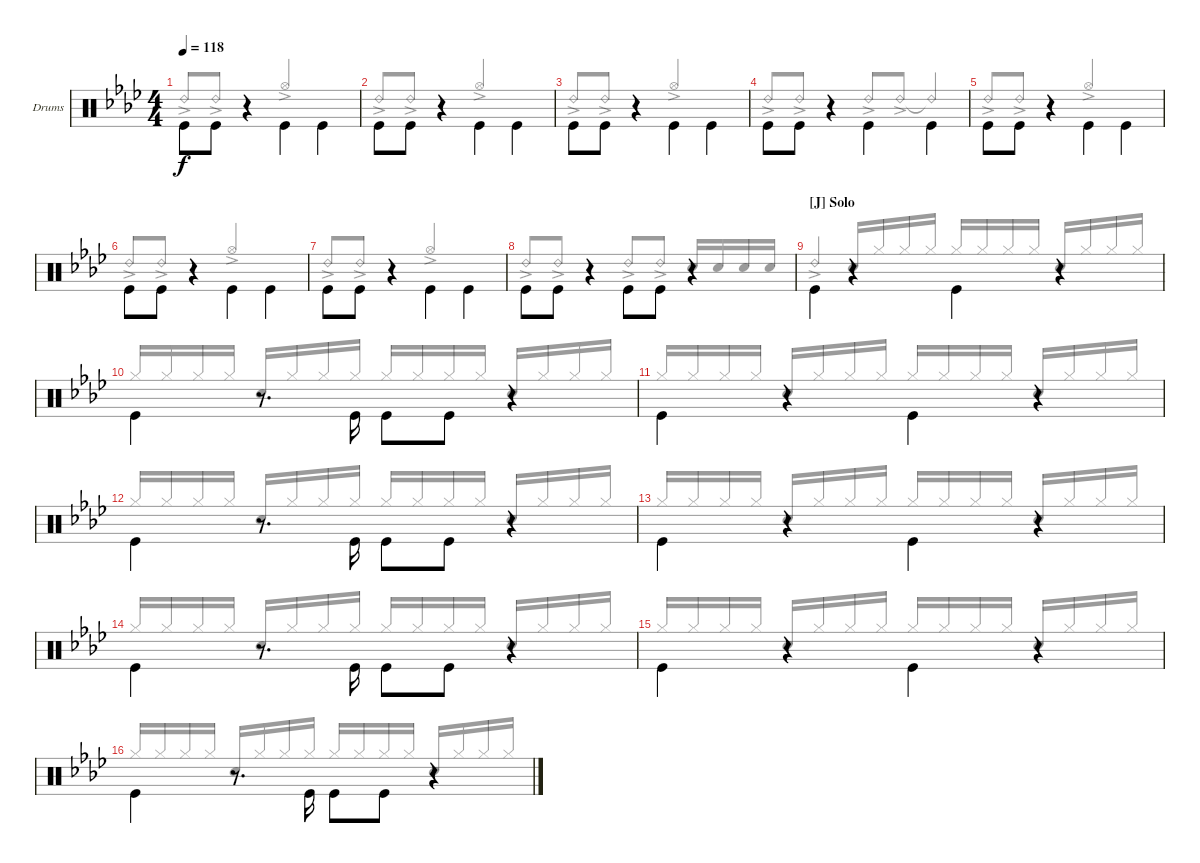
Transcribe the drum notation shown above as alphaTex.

\bracketExtendMode groupsimilarinstruments
\firstSystemTrackNameOrientation horizontal
\otherSystemsTrackNameOrientation horizontal
\track ("Drums" "Drums") {instrument percussion}
\staff {score}
\articulation defaults
\voice
\ts (4 4)
\tempo 118
\clef neutral
\scale
0.5
\ks ab "Kick (hit)".8{dy f beam invert} "Kick (hit)".8
r.4 "Kick (hit)".4{beam invert} "Kick (hit)".4{beam invert} |
\scale
0.5 "Kick (hit)".8{beam invert} "Kick (hit)".8 r.4 "Kick (hit)".4{beam invert} "Kick (hit)".4{beam invert} |
\scale
0.5 "Kick (hit)".8{beam invert} "Kick (hit)".8 r.4 "Kick (hit)".4{beam invert} "Kick (hit)".4{beam invert} |
\scale
0.5 "Kick (hit)".8{beam invert} "Kick (hit)".8 r.4 "Kick (hit)".4{beam invert} "Kick (hit)".4{beam invert} |
\scale
0.5 "Kick (hit)".8{beam invert} "Kick (hit)".8 r.4 "Kick (hit)".4{beam invert} "Kick (hit)".4{beam invert} |
\scale
0.5 "Kick (hit)".8{beam invert} "Kick (hit)".8 r.4 "Kick (hit)".4{beam invert} "Kick (hit)".4{beam invert} |
\scale
0.5 "Kick (hit)".8{beam invert} "Kick (hit)".8 r.4 "Kick (hit)".4{beam invert} "Kick (hit)".4{beam invert} |
\scale
0.5 "Kick (hit)".8{beam invert} "Kick (hit)".8 r.4 "Kick (hit)".8{beam invert} "Kick (hit)".8 r.4 |
\section ("J" "Solo")
\scale
0.5 "Kick (hit)".4{beam invert} r.4{beam invert} "Kick (hit)".4{beam invert} r.4{beam invert} |
\scale
0.5 "Kick (hit)".4{beam invert beam split} r.8{d beam split} "Kick (hit)".16{beam invert} "Kick (hit)".8{beam invert beam merge} "Kick (hit)".8{beam merge} r.4 |
\scale
0.5 "Kick (hit)".4{beam invert} r.4{beam invert} "Kick (hit)".4{beam invert} r.4{beam invert} |
\scale
0.5 "Kick (hit)".4{beam invert beam split} r.8{d beam split} "Kick (hit)".16{beam invert} "Kick (hit)".8{beam invert beam merge} "Kick (hit)".8{beam merge} r.4 |
\scale
0.5 "Kick (hit)".4{beam invert} r.4{beam invert} "Kick (hit)".4{beam invert} r.4{beam invert} |
\scale
0.5 "Kick (hit)".4{beam invert beam split} r.8{d beam split} "Kick (hit)".16{beam invert} "Kick (hit)".8{beam invert beam merge} "Kick (hit)".8{beam merge} r.4 |
\scale
0.5 "Kick (hit)".4{beam invert} r.4{beam invert} "Kick (hit)".4{beam invert} r.4{beam invert} |
\scale
0.5 "Kick (hit)".4{beam invert beam split} r.8{d beam split} "Kick (hit)".16{beam invert} "Kick (hit)".8{beam invert beam merge} "Kick (hit)".8{beam merge} r.4
\voice
\clef neutral
\ottava regular
\simile none
\scale
0.5
\ks ab "Ride (bell) 2"{ac}.8{dy f beam invert} "Ride (bell) 2"{ac}.8
r.4 "Hi-Hat (open)"{ac}.2{beam invert} |
\scale
0.5 "Ride (bell) 2"{ac}.8{beam invert} "Ride (bell) 2"{ac}.8 r.4 "Hi-Hat (open)"{ac}.2{beam invert} |
\scale
0.5 "Ride (bell) 2"{ac}.8{beam invert} "Ride (bell) 2"{ac}.8 r.4 "Hi-Hat (open)"{ac}.2{beam invert} |
\scale
0.5 "Ride (bell) 2"{ac}.8{beam invert} "Ride (bell) 2"{ac}.8 r.4 "Ride (bell) 2"{ac}.8{beam invert} "Ride (bell) 2"{ac}.8 "Ride (bell) 2"{t}.4{beam invert} |
\scale
0.5 "Ride (bell) 2"{ac}.8{beam invert} "Ride (bell) 2"{ac}.8 r.4 "Hi-Hat (open)"{ac}.2{beam invert} |
\scale
0.5 "Ride (bell) 2"{ac}.8{beam invert} "Ride (bell) 2"{ac}.8 r.4 "Hi-Hat (open)"{ac}.2{beam invert} |
\scale
0.5 "Ride (bell) 2"{ac}.8{beam invert} "Ride (bell) 2"{ac}.8 r.4 "Hi-Hat (open)"{ac}.2{beam invert} |
\scale
0.5 "Ride (bell) 2"{ac}.8{beam invert} "Ride (bell) 2"{ac}.8 r.4 "Ride (bell) 2"{ac}.8{beam invert} "Ride (bell) 2"{ac}.8 "Snare (hit) 2".16{beam invert} "Snare (hit) 2".16 "Snare (hit) 2".16 "Snare (hit) 2".16 |
\scale
0.5 "Ride (bell) 2"{ac}.4{beam invert} "Snare (hit) 2".16{beam invert beam merge} "Hi-Hat (closed)".16{beam merge} "Hi-Hat (closed)".16{beam merge} "Hi-Hat (closed)".16{beam split} "Hi-Hat (closed)".16{beam invert beam merge} "Hi-Hat (closed)".16{beam merge} "Hi-Hat (closed)".16{beam merge} "Hi-Hat (closed)".16{beam split} "Snare (hit) 2".16{beam invert beam merge} "Hi-Hat (closed)".16{beam merge} "Hi-Hat (closed)".16{beam merge} "Hi-Hat (closed)".16{beam split} |
\scale
0.5 "Hi-Hat (closed)".16{beam invert beam merge} "Hi-Hat (closed)".16{beam merge} "Hi-Hat (closed)".16{beam merge} "Hi-Hat (closed)".16{beam split} "Snare (hit) 2".16{beam invert beam merge} "Hi-Hat (closed)".16{beam merge} "Hi-Hat (closed)".16{beam merge} "Hi-Hat (closed)".16{beam split} "Hi-Hat (closed)".16{beam invert beam merge} "Hi-Hat (closed)".16{beam merge} "Hi-Hat (closed)".16{beam merge} "Hi-Hat (closed)".16{beam split} "Snare (hit) 2".16{beam invert beam merge} "Hi-Hat (closed)".16{beam merge} "Hi-Hat (closed)".16{beam merge} "Hi-Hat (closed)".16{beam split} |
\scale
0.5 "Hi-Hat (closed)".16{beam invert beam merge} "Hi-Hat (closed)".16{beam merge} "Hi-Hat (closed)".16{beam merge} "Hi-Hat (closed)".16{beam split} "Snare (hit) 2".16{beam invert beam merge} "Hi-Hat (closed)".16{beam merge} "Hi-Hat (closed)".16{beam merge} "Hi-Hat (closed)".16{beam split} "Hi-Hat (closed)".16{beam invert beam merge} "Hi-Hat (closed)".16{beam merge} "Hi-Hat (closed)".16{beam merge} "Hi-Hat (closed)".16{beam split} "Snare (hit) 2".16{beam invert beam merge} "Hi-Hat (closed)".16{beam merge} "Hi-Hat (closed)".16{beam merge} "Hi-Hat (closed)".16{beam split} |
\scale
0.5 "Hi-Hat (closed)".16{beam invert beam merge} "Hi-Hat (closed)".16{beam merge} "Hi-Hat (closed)".16{beam merge} "Hi-Hat (closed)".16{beam split} "Snare (hit) 2".16{beam invert beam merge} "Hi-Hat (closed)".16{beam merge} "Hi-Hat (closed)".16{beam merge} "Hi-Hat (closed)".16{beam split} "Hi-Hat (closed)".16{beam invert beam merge} "Hi-Hat (closed)".16{beam merge} "Hi-Hat (closed)".16{beam merge} "Hi-Hat (closed)".16{beam split} "Snare (hit) 2".16{beam invert beam merge} "Hi-Hat (closed)".16{beam merge} "Hi-Hat (closed)".16{beam merge} "Hi-Hat (closed)".16{beam split} |
\scale
0.5 "Hi-Hat (closed)".16{beam invert beam merge} "Hi-Hat (closed)".16{beam merge} "Hi-Hat (closed)".16{beam merge} "Hi-Hat (closed)".16{beam split} "Snare (hit) 2".16{beam invert beam merge} "Hi-Hat (closed)".16{beam merge} "Hi-Hat (closed)".16{beam merge} "Hi-Hat (closed)".16{beam split} "Hi-Hat (closed)".16{beam invert beam merge} "Hi-Hat (closed)".16{beam merge} "Hi-Hat (closed)".16{beam merge} "Hi-Hat (closed)".16{beam split} "Snare (hit) 2".16{beam invert beam merge} "Hi-Hat (closed)".16{beam merge} "Hi-Hat (closed)".16{beam merge} "Hi-Hat (closed)".16{beam split} |
\scale
0.5 "Hi-Hat (closed)".16{beam invert beam merge} "Hi-Hat (closed)".16{beam merge} "Hi-Hat (closed)".16{beam merge} "Hi-Hat (closed)".16{beam split} "Snare (hit) 2".16{beam invert beam merge} "Hi-Hat (closed)".16{beam merge} "Hi-Hat (closed)".16{beam merge} "Hi-Hat (closed)".16{beam split} "Hi-Hat (closed)".16{beam invert beam merge} "Hi-Hat (closed)".16{beam merge} "Hi-Hat (closed)".16{beam merge} "Hi-Hat (closed)".16{beam split} "Snare (hit) 2".16{beam invert beam merge} "Hi-Hat (closed)".16{beam merge} "Hi-Hat (closed)".16{beam merge} "Hi-Hat (closed)".16{beam split} |
\scale
0.5 "Hi-Hat (closed)".16{beam invert beam merge} "Hi-Hat (closed)".16{beam merge} "Hi-Hat (closed)".16{beam merge} "Hi-Hat (closed)".16{beam split} "Snare (hit) 2".16{beam invert beam merge} "Hi-Hat (closed)".16{beam merge} "Hi-Hat (closed)".16{beam merge} "Hi-Hat (closed)".16{beam split} "Hi-Hat (closed)".16{beam invert beam merge} "Hi-Hat (closed)".16{beam merge} "Hi-Hat (closed)".16{beam merge} "Hi-Hat (closed)".16{beam split} "Snare (hit) 2".16{beam invert beam merge} "Hi-Hat (closed)".16{beam merge} "Hi-Hat (closed)".16{beam merge} "Hi-Hat (closed)".16{beam split} |
\scale
0.5 "Hi-Hat (closed)".16{beam invert beam merge} "Hi-Hat (closed)".16{beam merge} "Hi-Hat (closed)".16{beam merge} "Hi-Hat (closed)".16{beam split} "Snare (hit) 2".16{beam invert beam merge} "Hi-Hat (closed)".16{beam merge} "Hi-Hat (closed)".16{beam merge} "Hi-Hat (closed)".16{beam split} "Hi-Hat (closed)".16{beam invert beam merge} "Hi-Hat (closed)".16{beam merge} "Hi-Hat (closed)".16{beam merge} "Hi-Hat (closed)".16{beam split} "Snare (hit) 2".16{beam invert beam merge} "Hi-Hat (closed)".16{beam merge} "Hi-Hat (closed)".16{beam merge} "Hi-Hat (closed)".16{beam split}
